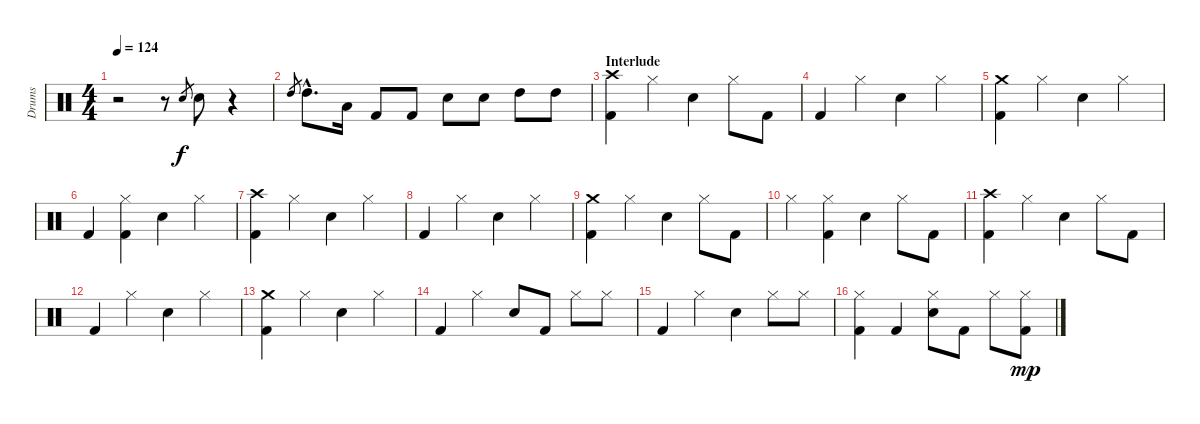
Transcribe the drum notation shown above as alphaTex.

\track ("Drums" "Drums") {instrument percussion}
\staff {score}
\articulation defaults
\ts (4 4)
\tempo 124
\clef neutral
\ks c
r.2{dy f} r.8 "Snare (hit) 2".8{gr} "Snare (hit) 2".8 r.4 |
"High Tom (hit)".8{gr} "High Tom (hit)"{hac}.8{d} "Low Tom (hit)".16 "Kick (hit) 2".8 "Kick (hit) 2".8 "Snare (hit) 2".8 "Snare (hit) 2".8 "High Tom (hit)".8 "High Tom (hit)".8 |
\section ("" "Interlude")
("Kick (hit) 2" "Crash high (hit)").4 "Hi-Hat (closed)".4 "Snare (hit) 2".4 "Hi-Hat (closed)".8 "Kick (hit) 2".8 |
"Kick (hit) 2".4 "Hi-Hat (closed)".4 "Snare (hit) 2".4 "Hi-Hat (closed)".4 |
("Kick (hit) 2" "Crash medium (hit)").4 "Hi-Hat (closed)".4 "Snare (hit) 2".4 "Hi-Hat (closed)".4 |
"Kick (hit) 2".4 ("Kick (hit) 2" "Hi-Hat (closed)").4 "Snare (hit) 2".4 "Hi-Hat (closed)".4 |
("Kick (hit) 2" "Crash high (hit)").4 "Hi-Hat (closed)".4 "Snare (hit) 2".4 "Hi-Hat (closed)".4 |
"Kick (hit) 2".4 "Hi-Hat (closed)".4 "Snare (hit) 2".4 "Hi-Hat (closed)".4 |
("Kick (hit) 2" "Crash medium (hit)").4 "Hi-Hat (closed)".4 "Snare (hit) 2".4 "Hi-Hat (closed)".8 "Kick (hit) 2".8 |
"Hi-Hat (closed)".4 ("Kick (hit) 2" "Hi-Hat (closed)").4 "Snare (hit) 2".4 "Hi-Hat (closed)".8 "Kick (hit) 2".8 |
("Kick (hit) 2" "Crash high (hit)").4 "Hi-Hat (closed)".4 "Snare (hit) 2".4 "Hi-Hat (closed)".8 "Kick (hit) 2".8 |
"Kick (hit) 2".4 "Hi-Hat (closed)".4 "Snare (hit) 2".4 "Hi-Hat (closed)".4 |
("Kick (hit) 2" "Crash medium (hit)").4 "Hi-Hat (closed)".4 "Snare (hit) 2".4 "Hi-Hat (closed)".4 |
"Kick (hit) 2".4 "Hi-Hat (closed)".4 "Snare (hit) 2".8 "Kick (hit) 2".8 "Hi-Hat (closed)".8 "Hi-Hat (closed)".8 |
"Kick (hit) 2".4 "Hi-Hat (closed)".4 "Snare (hit) 2".4 "Hi-Hat (closed)".8 "Hi-Hat (closed)".8 |
("Kick (hit) 2" "Hi-Hat (closed)").4 "Kick (hit) 2".4 ("Snare (hit) 2" "Hi-Hat (closed)").8 "Kick (hit) 2".8 "Hi-Hat (closed)".8 ("Kick (hit) 2" "Hi-Hat (closed)").8{dy mp}
